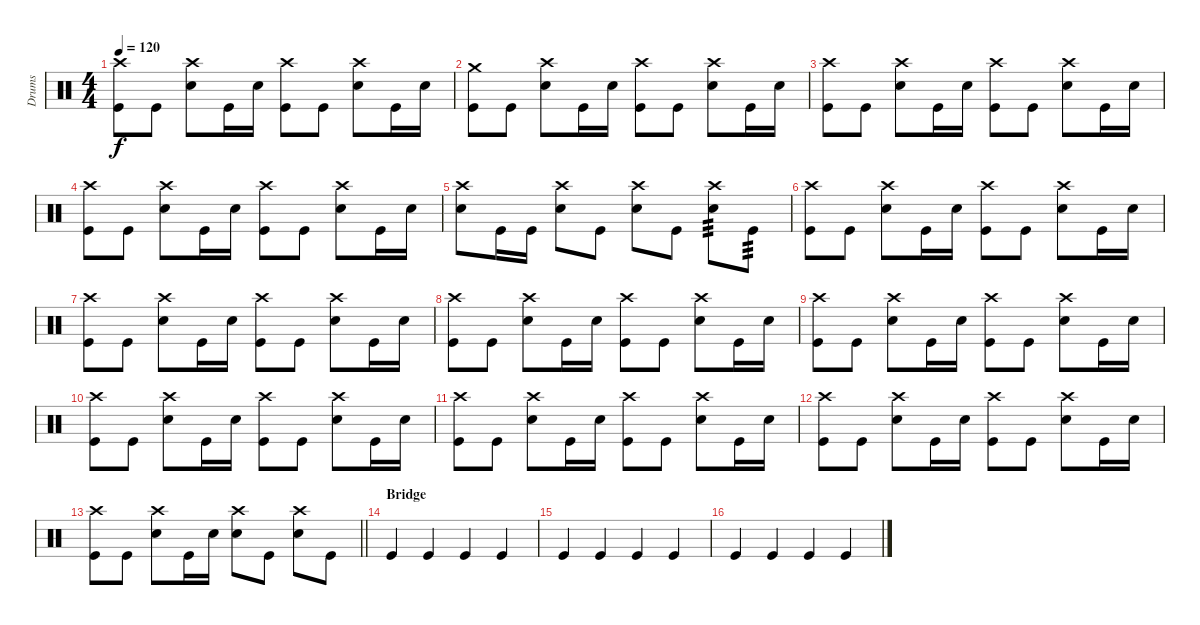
\track ("Drums" "Drums") {instrument percussion}
\staff {score}
\articulation defaults
\ts (4 4)
\tempo 120
\clef neutral
\ks c
("Kick (hit)" "Crash high (hit)").8{dy f} "Kick (hit)".8 ("Snare (hit) 2" "Crash high (hit)").8 "Kick (hit)".16 "Snare (hit) 2".16 ("Kick (hit)" "Crash high (hit)").8 "Kick (hit)".8 ("Snare (hit) 2" "Crash high (hit)").8 "Kick (hit)".16 "Snare (hit) 2".16 |
("Kick (hit)" "Crash medium (hit)").8 "Kick (hit)".8 ("Snare (hit) 2" "Crash high (hit)").8 "Kick (hit)".16 "Snare (hit) 2".16 ("Kick (hit)" "Crash high (hit)").8 "Kick (hit)".8 ("Snare (hit) 2" "Crash high (hit)").8 "Kick (hit)".16 "Snare (hit) 2".16 |
("Kick (hit)" "Crash high (hit)").8 "Kick (hit)".8 ("Snare (hit) 2" "Crash high (hit)").8 "Kick (hit)".16 "Snare (hit) 2".16 ("Kick (hit)" "Crash high (hit)").8 "Kick (hit)".8 ("Snare (hit) 2" "Crash high (hit)").8 "Kick (hit)".16 "Snare (hit) 2".16 |
("Kick (hit)" "Crash high (hit)").8 "Kick (hit)".8 ("Snare (hit) 2" "Crash high (hit)").8 "Kick (hit)".16 "Snare (hit) 2".16 ("Kick (hit)" "Crash high (hit)").8 "Kick (hit)".8 ("Snare (hit) 2" "Crash high (hit)").8 "Kick (hit)".16 "Snare (hit) 2".16 |
("Crash high (hit)" "Snare (hit) 2").8 "Kick (hit)".16 "Kick (hit)".16 ("Crash high (hit)" "Snare (hit) 2").8 "Kick (hit)".8 ("Crash high (hit)" "Snare (hit) 2").8 "Kick (hit)".8 ("Crash high (hit)" "Snare (hit) 2").8{tp 3} "Kick (hit)".8{tp 3} |
("Kick (hit)" "Crash high (hit)").8 "Kick (hit)".8 ("Snare (hit) 2" "Crash high (hit)").8 "Kick (hit)".16 "Snare (hit) 2".16 ("Kick (hit)" "Crash high (hit)").8 "Kick (hit)".8 ("Snare (hit) 2" "Crash high (hit)").8 "Kick (hit)".16 "Snare (hit) 2".16 |
("Kick (hit)" "Crash high (hit)").8 "Kick (hit)".8 ("Snare (hit) 2" "Crash high (hit)").8 "Kick (hit)".16 "Snare (hit) 2".16 ("Kick (hit)" "Crash high (hit)").8 "Kick (hit)".8 ("Snare (hit) 2" "Crash high (hit)").8 "Kick (hit)".16 "Snare (hit) 2".16 |
("Kick (hit)" "Crash high (hit)").8 "Kick (hit)".8 ("Snare (hit) 2" "Crash high (hit)").8 "Kick (hit)".16 "Snare (hit) 2".16 ("Kick (hit)" "Crash high (hit)").8 "Kick (hit)".8 ("Snare (hit) 2" "Crash high (hit)").8 "Kick (hit)".16 "Snare (hit) 2".16 |
("Kick (hit)" "Crash high (hit)").8 "Kick (hit)".8 ("Snare (hit) 2" "Crash high (hit)").8 "Kick (hit)".16 "Snare (hit) 2".16 ("Kick (hit)" "Crash high (hit)").8 "Kick (hit)".8 ("Snare (hit) 2" "Crash high (hit)").8 "Kick (hit)".16 "Snare (hit) 2".16 |
("Kick (hit)" "Crash high (hit)").8 "Kick (hit)".8 ("Snare (hit) 2" "Crash high (hit)").8 "Kick (hit)".16 "Snare (hit) 2".16 ("Kick (hit)" "Crash high (hit)").8 "Kick (hit)".8 ("Snare (hit) 2" "Crash high (hit)").8 "Kick (hit)".16 "Snare (hit) 2".16 |
("Kick (hit)" "Crash high (hit)").8 "Kick (hit)".8 ("Snare (hit) 2" "Crash high (hit)").8 "Kick (hit)".16 "Snare (hit) 2".16 ("Kick (hit)" "Crash high (hit)").8 "Kick (hit)".8 ("Snare (hit) 2" "Crash high (hit)").8 "Kick (hit)".16 "Snare (hit) 2".16 |
("Kick (hit)" "Crash high (hit)").8 "Kick (hit)".8 ("Snare (hit) 2" "Crash high (hit)").8 "Kick (hit)".16 "Snare (hit) 2".16 ("Kick (hit)" "Crash high (hit)").8 "Kick (hit)".8 ("Snare (hit) 2" "Crash high (hit)").8 "Kick (hit)".16 "Snare (hit) 2".16 |
\barLineRight lightlight
("Kick (hit)" "Crash high (hit)").8 "Kick (hit)".8 ("Snare (hit) 2" "Crash high (hit)").8 "Kick (hit)".16 "Snare (hit) 2".16 ("Crash high (hit)" "Snare (hit) 2").8 "Kick (hit)".8 ("Crash high (hit)" "Snare (hit) 2").8 "Kick (hit)".8 |
\section ("" "Bridge")
"Kick (hit)".4 "Kick (hit)".4 "Kick (hit)".4 "Kick (hit)".4 |
"Kick (hit)".4 "Kick (hit)".4 "Kick (hit)".4 "Kick (hit)".4 |
"Kick (hit)".4 "Kick (hit)".4 "Kick (hit)".4 "Kick (hit)".4
